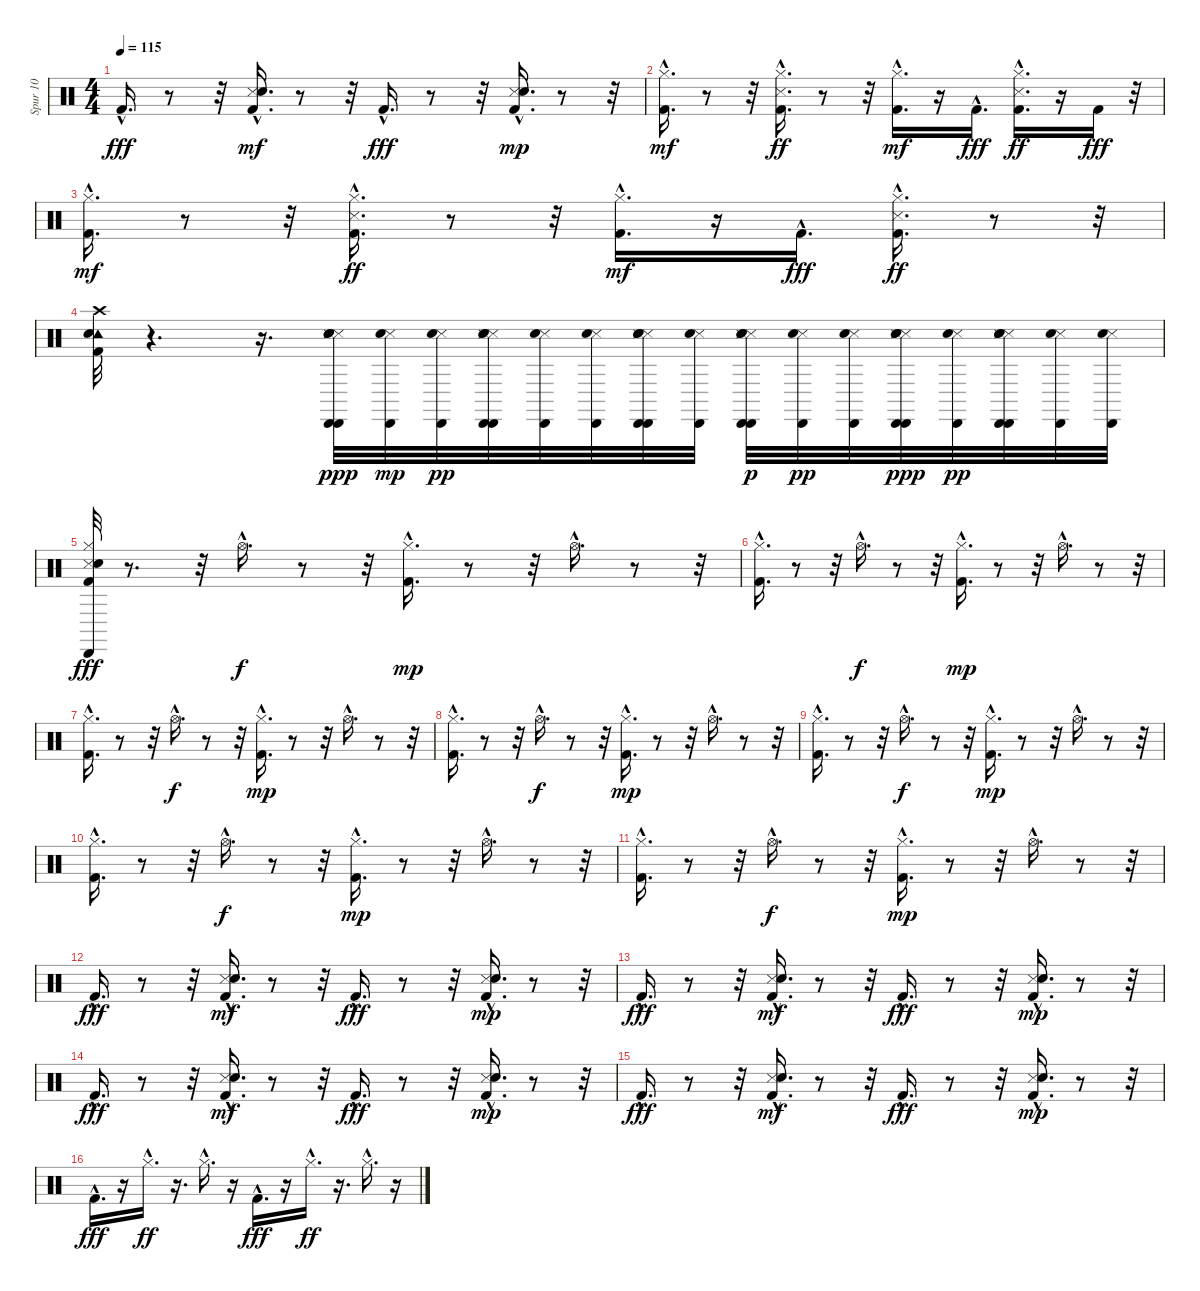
\track ("Spur 10" "Spur 10") {instrument percussion}
\staff {score}
\articulation defaults
\ts (4 4)
\tempo 115
\clef neutral
\ks c "Kick (hit) 2"{hac}.16{d dy fff}
r.8 r.32 ("Kick (hit) 2"{hac} "Snare (side stick) 3"{hac} "Snare (hit) 2"{hac}).16{d dy mf} r.8 r.32 "Kick (hit) 2"{hac}.16{d dy fff} r.8 r.32 ("Kick (hit) 2"{hac} "Snare (side stick) 3"{hac} "Snare (hit) 2"{hac}).16{d dy mp} r.8 r.32 |
("Kick (hit) 2"{hac} "Hi-Hat (closed)"{hac}).16{d dy mf} r.8 r.32 ("Snare (side stick) 3" "Kick (hit) 2"{hac} "Hi-Hat (closed)"{hac}).16{d dy ff} r.8 r.32 ("Kick (hit) 2"{hac} "Hi-Hat (closed)"{hac}).16{d dy mf} r.16 "Kick (hit) 2"{hac}.16{d dy fff} ("Snare (side stick) 3" "Kick (hit) 2"{hac} "Hi-Hat (closed)"{hac}).16{d dy ff} r.16 "Kick (hit) 2".16{dy fff} r.32 |
("Kick (hit) 2"{hac} "Hi-Hat (closed)"{hac}).16{d dy mf} r.8 r.32 ("Snare (side stick) 3" "Kick (hit) 2"{hac} "Hi-Hat (closed)"{hac}).16{d dy ff} r.8 r.32 ("Kick (hit) 2"{hac} "Hi-Hat (closed)"{hac}).16{d dy mf} r.16 "Kick (hit) 2"{hac}.16{d dy fff} ("Snare (side stick) 3" "Kick (hit) 2"{hac} "Hi-Hat (closed)"{hac}).16{d dy ff} r.8 r.32 |
("Kick (hit) 2" "Tambourine (hit)" "Snare (hit) 2" "Crash high (hit)").32 r.4{d} r.16{d} ("Snare (side stick) 3" "Cabasa (hit)" "Snare (hit) 2" "Electric Snare (hit)" "Snare (side stick) 3" "Cabasa (hit)").32{dy ppp} ("Snare (side stick) 3" "Cabasa (hit)" "Electric Snare (hit)").32{dy mp} ("Snare (side stick) 3" "Cabasa (hit)" "Electric Snare (hit)").32{dy pp} ("Snare (side stick) 3" "Cabasa (hit)" "Electric Snare (hit)" "Snare (side stick) 3" "Cabasa (hit)" "Electric Snare (hit)").32 ("Snare (side stick) 3" "Cabasa (hit)" "Electric Snare (hit)").32 ("Snare (side stick) 3" "Cabasa (hit)" "Electric Snare (hit)").32 ("Snare (side stick) 3" "Cabasa (hit)" "Electric Snare (hit)" "Snare (side stick) 3" "Cabasa (hit)" "Electric Snare (hit)").32 ("Snare (side stick) 3" "Cabasa (hit)" "Electric Snare (hit)").32 ("Snare (side stick) 3" "Cabasa (hit)" "Electric Snare (hit)" "Cabasa (hit)" "Snare (side stick) 3" "Electric Snare (hit)").32{dy p} ("Cabasa (hit)" "Snare (side stick) 3" "Electric Snare (hit)").32{dy pp} ("Cabasa (hit)" "Snare (side stick) 3" "Electric Snare (hit)").32 ("Cabasa (hit)" "Snare (side stick) 3" "Electric Snare (hit)" "Cabasa (hit)" "Snare (side stick) 3" "Electric Snare (hit)").32{dy ppp} ("Cabasa (hit)" "Snare (side stick) 3" "Electric Snare (hit)").32{dy pp} ("Cabasa (hit)" "Snare (side stick) 3" "Electric Snare (hit)" "Cabasa (hit)" "Snare (side stick) 3" "Electric Snare (hit)").32 ("Cabasa (hit)" "Snare (side stick) 3" "Electric Snare (hit)").32 ("Cabasa (hit)" "Snare (side stick) 3" "Electric Snare (hit)").32 |
("Cabasa (hit)" "Snare (side stick) 3" "Electric Snare (hit)" "Hi-Hat (closed)" "Kick (hit) 2").32{dy fff} r.8{d} r.32 "Hi-Hat (open)"{hac}.16{d dy f} r.8 r.32 ("Kick (hit) 2"{hac} "Hi-Hat (closed)"{hac}).16{d dy mp} r.8 r.32 "Hi-Hat (open)"{hac}.16{d} r.8 r.32 |
("Kick (hit) 2"{hac} "Hi-Hat (closed)"{hac}).16{d} r.8 r.32 "Hi-Hat (open)"{hac}.16{d dy f} r.8 r.32 ("Kick (hit) 2"{hac} "Hi-Hat (closed)"{hac}).16{d dy mp} r.8 r.32 "Hi-Hat (open)"{hac}.16{d} r.8 r.32 |
("Kick (hit) 2"{hac} "Hi-Hat (closed)"{hac}).16{d} r.8 r.32 "Hi-Hat (open)"{hac}.16{d dy f} r.8 r.32 ("Kick (hit) 2"{hac} "Hi-Hat (closed)"{hac}).16{d dy mp} r.8 r.32 "Hi-Hat (open)"{hac}.16{d} r.8 r.32 |
("Kick (hit) 2"{hac} "Hi-Hat (closed)"{hac}).16{d} r.8 r.32 "Hi-Hat (open)"{hac}.16{d dy f} r.8 r.32 ("Kick (hit) 2"{hac} "Hi-Hat (closed)"{hac}).16{d dy mp} r.8 r.32 "Hi-Hat (open)"{hac}.16{d} r.8 r.32 |
("Kick (hit) 2"{hac} "Hi-Hat (closed)"{hac}).16{d} r.8 r.32 "Hi-Hat (open)"{hac}.16{d dy f} r.8 r.32 ("Kick (hit) 2"{hac} "Hi-Hat (closed)"{hac}).16{d dy mp} r.8 r.32 "Hi-Hat (open)"{hac}.16{d} r.8 r.32 |
("Kick (hit) 2"{hac} "Hi-Hat (closed)"{hac}).16{d} r.8 r.32 "Hi-Hat (open)"{hac}.16{d dy f} r.8 r.32 ("Kick (hit) 2"{hac} "Hi-Hat (closed)"{hac}).16{d dy mp} r.8 r.32 "Hi-Hat (open)"{hac}.16{d} r.8 r.32 |
("Kick (hit) 2"{hac} "Hi-Hat (closed)"{hac}).16{d} r.8 r.32 "Hi-Hat (open)"{hac}.16{d dy f} r.8 r.32 ("Kick (hit) 2"{hac} "Hi-Hat (closed)"{hac}).16{d dy mp} r.8 r.32 "Hi-Hat (open)"{hac}.16{d} r.8 r.32 |
"Kick (hit) 2"{hac}.16{d dy fff} r.8 r.32 ("Kick (hit) 2"{hac} "Snare (side stick) 3"{hac} "Snare (hit) 2"{hac}).16{d dy mf} r.8 r.32 "Kick (hit) 2"{hac}.16{d dy fff} r.8 r.32 ("Kick (hit) 2"{hac} "Snare (side stick) 3"{hac} "Snare (hit) 2"{hac}).16{d dy mp} r.8 r.32 |
"Kick (hit) 2"{hac}.16{d dy fff} r.8 r.32 ("Kick (hit) 2"{hac} "Snare (side stick) 3"{hac} "Snare (hit) 2"{hac}).16{d dy mf} r.8 r.32 "Kick (hit) 2"{hac}.16{d dy fff} r.8 r.32 ("Kick (hit) 2"{hac} "Snare (side stick) 3"{hac} "Snare (hit) 2"{hac}).16{d dy mp} r.8 r.32 |
"Kick (hit) 2"{hac}.16{d dy fff} r.8 r.32 ("Kick (hit) 2"{hac} "Snare (side stick) 3"{hac} "Snare (hit) 2"{hac}).16{d dy mf} r.8 r.32 "Kick (hit) 2"{hac}.16{d dy fff} r.8 r.32 ("Kick (hit) 2"{hac} "Snare (side stick) 3"{hac} "Snare (hit) 2"{hac}).16{d dy mp} r.8 r.32 |
"Kick (hit) 2"{hac}.16{d dy fff} r.8 r.32 ("Kick (hit) 2"{hac} "Snare (side stick) 3"{hac} "Snare (hit) 2"{hac}).16{d dy mf} r.8 r.32 "Kick (hit) 2"{hac}.16{d dy fff} r.8 r.32 ("Kick (hit) 2"{hac} "Snare (side stick) 3"{hac} "Snare (hit) 2"{hac}).16{d dy mp} r.8 r.32 |
"Kick (hit) 2"{hac}.16{d dy fff} r.16 "Hi-Hat (closed)"{hac}.16{d dy ff} r.16{d} "Hi-Hat (closed)"{hac}.16{d} r.16 "Kick (hit) 2"{hac}.16{d dy fff} r.16 "Hi-Hat (closed)"{hac}.16{d dy ff} r.16{d} "Hi-Hat (closed)"{hac}.16{d} r.16
